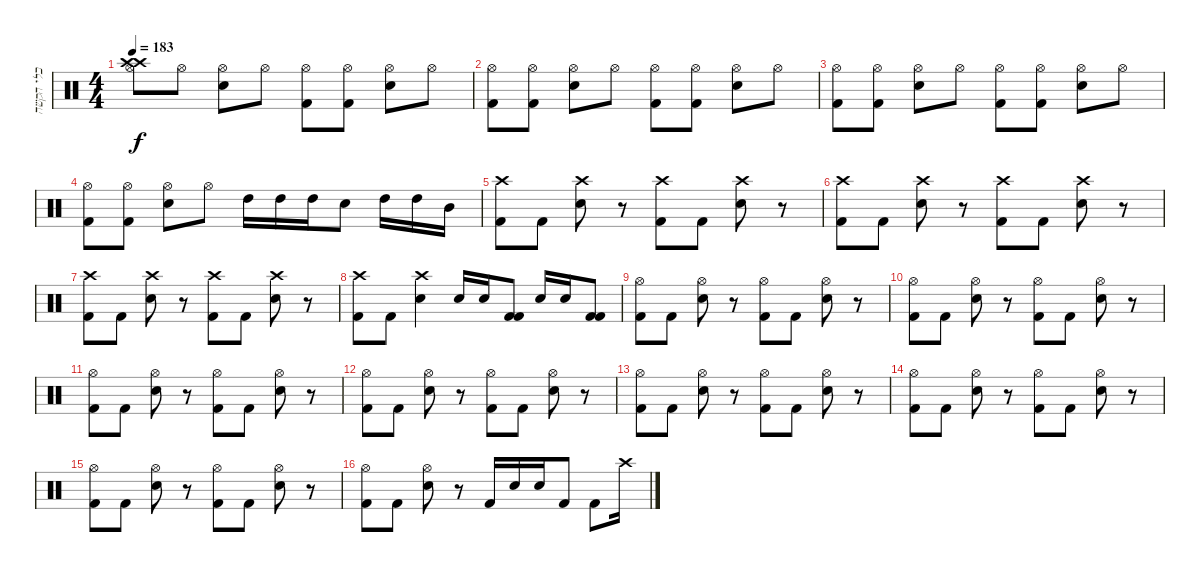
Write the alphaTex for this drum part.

\track ("כלי הקשה" "כלי הקשה") {instrument percussion}
\staff {score}
\articulation defaults
\ts (4 4)
\tempo 183
\clef neutral
\ks c
("Crash high (hit)" "Crash high (hit)" "Hi-Hat (open)").8{dy f} "Hi-Hat (open)".8 ("Hi-Hat (open)" "Snare (hit) 2").8 "Hi-Hat (open)".8 ("Hi-Hat (open)" "Kick (hit) 2").8 ("Hi-Hat (open)" "Kick (hit) 2").8 ("Hi-Hat (open)" "Snare (hit) 2").8 "Hi-Hat (open)".8 |
("Hi-Hat (open)" "Kick (hit) 2").8 ("Hi-Hat (open)" "Kick (hit) 2").8 ("Hi-Hat (open)" "Snare (hit) 2").8 "Hi-Hat (open)".8 ("Hi-Hat (open)" "Kick (hit) 2").8 ("Hi-Hat (open)" "Kick (hit) 2").8 ("Hi-Hat (open)" "Snare (hit) 2").8 "Hi-Hat (open)".8 |
("Hi-Hat (open)" "Kick (hit) 2").8 ("Hi-Hat (open)" "Kick (hit) 2").8 ("Hi-Hat (open)" "Snare (hit) 2").8 "Hi-Hat (open)".8 ("Hi-Hat (open)" "Kick (hit) 2").8 ("Hi-Hat (open)" "Kick (hit) 2").8 ("Hi-Hat (open)" "Snare (hit) 2").8 "Hi-Hat (open)".8 |
("Hi-Hat (open)" "Kick (hit) 2").8 ("Hi-Hat (open)" "Kick (hit) 2").8 ("Hi-Hat (open)" "Snare (hit) 2").8 "Hi-Hat (open)".8 "High Tom (hit)".16 "High Tom (hit)".16 "High Tom (hit)".16 "Snare (hit) 2".8 "High Tom (hit)".16 "High Tom (hit)".16 "Mid Tom (hit)".16 |
("Crash high (hit)" "Kick (hit) 2").8 "Kick (hit) 2".8 ("Crash high (hit)" "Snare (hit) 2").8 r.8 ("Crash high (hit)" "Kick (hit) 2").8 "Kick (hit) 2".8 ("Crash high (hit)" "Snare (hit) 2").8 r.8 |
("Crash high (hit)" "Kick (hit) 2").8 "Kick (hit) 2".8 ("Crash high (hit)" "Snare (hit) 2").8 r.8 ("Crash high (hit)" "Kick (hit) 2").8 "Kick (hit) 2".8 ("Crash high (hit)" "Snare (hit) 2").8 r.8 |
("Crash high (hit)" "Kick (hit) 2").8 "Kick (hit) 2".8 ("Crash high (hit)" "Snare (hit) 2").8 r.8 ("Crash high (hit)" "Kick (hit) 2").8 "Kick (hit) 2".8 ("Crash high (hit)" "Snare (hit) 2").8 r.8 |
("Crash high (hit)" "Kick (hit) 2").8 "Kick (hit) 2".8 ("Crash high (hit)" "Snare (hit) 2").4 "Snare (hit) 2".16 "Snare (hit) 2".16 ("Kick (hit) 2" "Kick (hit) 2").8 "Snare (hit) 2".16 "Snare (hit) 2".16 ("Kick (hit) 2" "Kick (hit) 2").8 |
("Hi-Hat (open)" "Kick (hit) 2").8 "Kick (hit) 2".8 ("Hi-Hat (open)" "Snare (hit) 2").8 r.8 ("Hi-Hat (open)" "Kick (hit) 2").8 "Kick (hit) 2".8 ("Hi-Hat (open)" "Snare (hit) 2").8 r.8 |
("Hi-Hat (open)" "Kick (hit) 2").8 "Kick (hit) 2".8 ("Hi-Hat (open)" "Snare (hit) 2").8 r.8 ("Hi-Hat (open)" "Kick (hit) 2").8 "Kick (hit) 2".8 ("Hi-Hat (open)" "Snare (hit) 2").8 r.8 |
("Hi-Hat (open)" "Kick (hit) 2").8 "Kick (hit) 2".8 ("Hi-Hat (open)" "Snare (hit) 2").8 r.8 ("Hi-Hat (open)" "Kick (hit) 2").8 "Kick (hit) 2".8 ("Hi-Hat (open)" "Snare (hit) 2").8 r.8 |
("Hi-Hat (open)" "Kick (hit) 2").8 "Kick (hit) 2".8 ("Hi-Hat (open)" "Snare (hit) 2").8 r.8 ("Hi-Hat (open)" "Kick (hit) 2").8 "Kick (hit) 2".8 ("Hi-Hat (open)" "Snare (hit) 2").8 r.8 |
("Hi-Hat (open)" "Kick (hit) 2").8 "Kick (hit) 2".8 ("Hi-Hat (open)" "Snare (hit) 2").8 r.8 ("Hi-Hat (open)" "Kick (hit) 2").8 "Kick (hit) 2".8 ("Hi-Hat (open)" "Snare (hit) 2").8 r.8 |
("Hi-Hat (open)" "Kick (hit) 2").8 "Kick (hit) 2".8 ("Hi-Hat (open)" "Snare (hit) 2").8 r.8 ("Hi-Hat (open)" "Kick (hit) 2").8 "Kick (hit) 2".8 ("Hi-Hat (open)" "Snare (hit) 2").8 r.8 |
("Hi-Hat (open)" "Kick (hit) 2").8 "Kick (hit) 2".8 ("Hi-Hat (open)" "Snare (hit) 2").8 r.8 ("Hi-Hat (open)" "Kick (hit) 2").8 "Kick (hit) 2".8 ("Hi-Hat (open)" "Snare (hit) 2").8 r.8 |
("Hi-Hat (open)" "Kick (hit) 2").8 "Kick (hit) 2".8 ("Hi-Hat (open)" "Snare (hit) 2").8 r.8 "Kick (hit) 2".16 "Snare (hit) 2".16 "Snare (hit) 2".16 "Kick (hit) 2".8 "Kick (hit) 2".8 "Crash high (hit)".16
